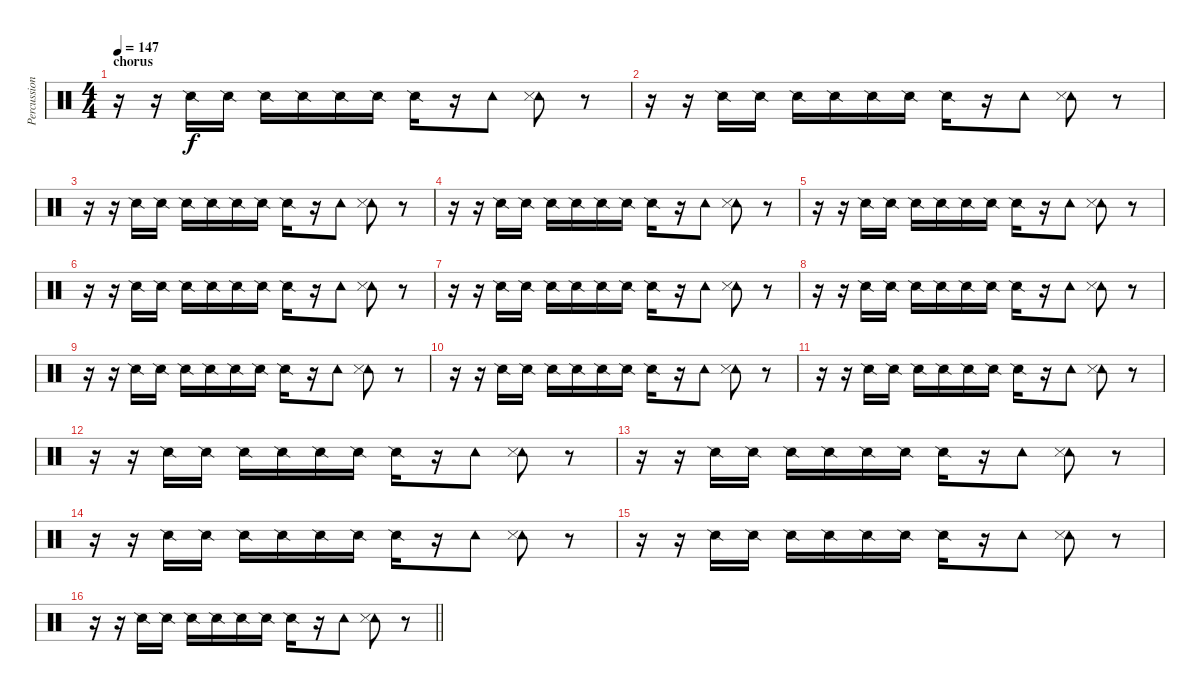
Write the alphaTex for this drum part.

\track ("Percussion" "Percussion") {instrument percussion}
\staff {score}
\articulation defaults
\ts (4 4)
\section ("" "chorus")
\tempo 147
\clef neutral
\ks c
r.16{dy f} r.16 "Snare (side stick) 2".16 "Snare (side stick) 2".16 "Snare (side stick) 2".16 "Snare (side stick) 2".16 "Snare (side stick) 2".16 "Snare (side stick) 2".16 "Snare (side stick) 2".16 r.16 "Tambourine (hit)".8 ("Tambourine (hit)" "Snare (side stick) 3").8 r.8 |
r.16 r.16 "Snare (side stick) 2".16 "Snare (side stick) 2".16 "Snare (side stick) 2".16 "Snare (side stick) 2".16 "Snare (side stick) 2".16 "Snare (side stick) 2".16 "Snare (side stick) 2".16 r.16 "Tambourine (hit)".8 ("Tambourine (hit)" "Snare (side stick) 3").8 r.8 |
r.16 r.16 "Snare (side stick) 2".16 "Snare (side stick) 2".16 "Snare (side stick) 2".16 "Snare (side stick) 2".16 "Snare (side stick) 2".16 "Snare (side stick) 2".16 "Snare (side stick) 2".16 r.16 "Tambourine (hit)".8 ("Tambourine (hit)" "Snare (side stick) 3").8 r.8 |
r.16 r.16 "Snare (side stick) 2".16 "Snare (side stick) 2".16 "Snare (side stick) 2".16 "Snare (side stick) 2".16 "Snare (side stick) 2".16 "Snare (side stick) 2".16 "Snare (side stick) 2".16 r.16 "Tambourine (hit)".8 ("Tambourine (hit)" "Snare (side stick) 3").8 r.8 |
r.16 r.16 "Snare (side stick) 2".16 "Snare (side stick) 2".16 "Snare (side stick) 2".16 "Snare (side stick) 2".16 "Snare (side stick) 2".16 "Snare (side stick) 2".16 "Snare (side stick) 2".16 r.16 "Tambourine (hit)".8 ("Tambourine (hit)" "Snare (side stick) 3").8 r.8 |
r.16 r.16 "Snare (side stick) 2".16 "Snare (side stick) 2".16 "Snare (side stick) 2".16 "Snare (side stick) 2".16 "Snare (side stick) 2".16 "Snare (side stick) 2".16 "Snare (side stick) 2".16 r.16 "Tambourine (hit)".8 ("Tambourine (hit)" "Snare (side stick) 3").8 r.8 |
r.16 r.16 "Snare (side stick) 2".16 "Snare (side stick) 2".16 "Snare (side stick) 2".16 "Snare (side stick) 2".16 "Snare (side stick) 2".16 "Snare (side stick) 2".16 "Snare (side stick) 2".16 r.16 "Tambourine (hit)".8 ("Tambourine (hit)" "Snare (side stick) 3").8 r.8 |
r.16 r.16 "Snare (side stick) 2".16 "Snare (side stick) 2".16 "Snare (side stick) 2".16 "Snare (side stick) 2".16 "Snare (side stick) 2".16 "Snare (side stick) 2".16 "Snare (side stick) 2".16 r.16 "Tambourine (hit)".8 ("Tambourine (hit)" "Snare (side stick) 3").8 r.8 |
r.16 r.16 "Snare (side stick) 2".16 "Snare (side stick) 2".16 "Snare (side stick) 2".16 "Snare (side stick) 2".16 "Snare (side stick) 2".16 "Snare (side stick) 2".16 "Snare (side stick) 2".16 r.16 "Tambourine (hit)".8 ("Tambourine (hit)" "Snare (side stick) 3").8 r.8 |
r.16 r.16 "Snare (side stick) 2".16 "Snare (side stick) 2".16 "Snare (side stick) 2".16 "Snare (side stick) 2".16 "Snare (side stick) 2".16 "Snare (side stick) 2".16 "Snare (side stick) 2".16 r.16 "Tambourine (hit)".8 ("Tambourine (hit)" "Snare (side stick) 3").8 r.8 |
r.16 r.16 "Snare (side stick) 2".16 "Snare (side stick) 2".16 "Snare (side stick) 2".16 "Snare (side stick) 2".16 "Snare (side stick) 2".16 "Snare (side stick) 2".16 "Snare (side stick) 2".16 r.16 "Tambourine (hit)".8 ("Tambourine (hit)" "Snare (side stick) 3").8 r.8 |
r.16 r.16 "Snare (side stick) 2".16 "Snare (side stick) 2".16 "Snare (side stick) 2".16 "Snare (side stick) 2".16 "Snare (side stick) 2".16 "Snare (side stick) 2".16 "Snare (side stick) 2".16 r.16 "Tambourine (hit)".8 ("Tambourine (hit)" "Snare (side stick) 3").8 r.8 |
r.16 r.16 "Snare (side stick) 2".16 "Snare (side stick) 2".16 "Snare (side stick) 2".16 "Snare (side stick) 2".16 "Snare (side stick) 2".16 "Snare (side stick) 2".16 "Snare (side stick) 2".16 r.16 "Tambourine (hit)".8 ("Tambourine (hit)" "Snare (side stick) 3").8 r.8 |
r.16 r.16 "Snare (side stick) 2".16 "Snare (side stick) 2".16 "Snare (side stick) 2".16 "Snare (side stick) 2".16 "Snare (side stick) 2".16 "Snare (side stick) 2".16 "Snare (side stick) 2".16 r.16 "Tambourine (hit)".8 ("Tambourine (hit)" "Snare (side stick) 3").8 r.8 |
r.16 r.16 "Snare (side stick) 2".16 "Snare (side stick) 2".16 "Snare (side stick) 2".16 "Snare (side stick) 2".16 "Snare (side stick) 2".16 "Snare (side stick) 2".16 "Snare (side stick) 2".16 r.16 "Tambourine (hit)".8 ("Tambourine (hit)" "Snare (side stick) 3").8 r.8 |
\barLineRight lightlight
r.16 r.16 "Snare (side stick) 2".16 "Snare (side stick) 2".16 "Snare (side stick) 2".16 "Snare (side stick) 2".16 "Snare (side stick) 2".16 "Snare (side stick) 2".16 "Snare (side stick) 2".16 r.16 "Tambourine (hit)".8 ("Tambourine (hit)" "Snare (side stick) 3").8 r.8
